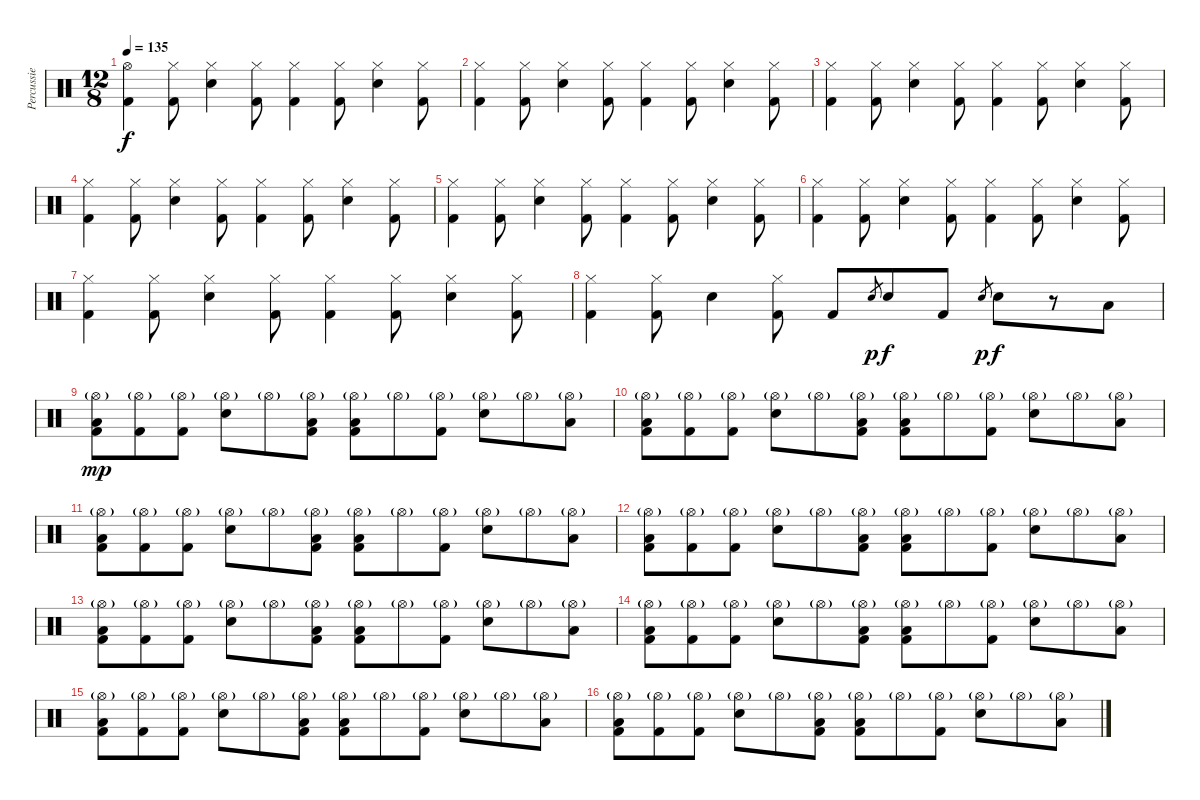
\track ("Percussie" "Percussie") {instrument percussion}
\staff {score}
\articulation defaults
\ts (12 8)
\tempo 135
\clef neutral
\ks c
("Hi-Hat (open)" "Kick (hit) 2").4{dy f} ("Hi-Hat (closed)" "Kick (hit) 2").8 ("Hi-Hat (closed)" "Electric Snare (hit)").4 ("Hi-Hat (closed)" "Kick (hit) 2").8 ("Hi-Hat (closed)" "Kick (hit) 2").4 ("Hi-Hat (closed)" "Kick (hit) 2").8 ("Hi-Hat (closed)" "Electric Snare (hit)").4 ("Hi-Hat (closed)" "Kick (hit) 2").8 |
("Hi-Hat (closed)" "Kick (hit) 2").4 ("Hi-Hat (closed)" "Kick (hit) 2").8 ("Hi-Hat (closed)" "Electric Snare (hit)").4 ("Hi-Hat (closed)" "Kick (hit) 2").8 ("Hi-Hat (closed)" "Kick (hit) 2").4 ("Hi-Hat (closed)" "Kick (hit) 2").8 ("Hi-Hat (closed)" "Electric Snare (hit)").4 ("Hi-Hat (closed)" "Kick (hit) 2").8 |
("Hi-Hat (closed)" "Kick (hit) 2").4 ("Hi-Hat (closed)" "Kick (hit) 2").8 ("Hi-Hat (closed)" "Electric Snare (hit)").4 ("Hi-Hat (closed)" "Kick (hit) 2").8 ("Hi-Hat (closed)" "Kick (hit) 2").4 ("Hi-Hat (closed)" "Kick (hit) 2").8 ("Hi-Hat (closed)" "Electric Snare (hit)").4 ("Hi-Hat (closed)" "Kick (hit) 2").8 |
("Hi-Hat (closed)" "Kick (hit) 2").4 ("Hi-Hat (closed)" "Kick (hit) 2").8 ("Hi-Hat (closed)" "Electric Snare (hit)").4 ("Hi-Hat (closed)" "Kick (hit) 2").8 ("Hi-Hat (closed)" "Kick (hit) 2").4 ("Hi-Hat (closed)" "Kick (hit) 2").8 ("Hi-Hat (closed)" "Electric Snare (hit)").4 ("Hi-Hat (closed)" "Kick (hit) 2").8 |
("Hi-Hat (closed)" "Kick (hit) 2").4 ("Hi-Hat (closed)" "Kick (hit) 2").8 ("Hi-Hat (closed)" "Electric Snare (hit)").4 ("Hi-Hat (closed)" "Kick (hit) 2").8 ("Hi-Hat (closed)" "Kick (hit) 2").4 ("Hi-Hat (closed)" "Kick (hit) 2").8 ("Hi-Hat (closed)" "Electric Snare (hit)").4 ("Hi-Hat (closed)" "Kick (hit) 2").8 |
("Hi-Hat (closed)" "Kick (hit) 2").4 ("Hi-Hat (closed)" "Kick (hit) 2").8 ("Hi-Hat (closed)" "Electric Snare (hit)").4 ("Hi-Hat (closed)" "Kick (hit) 2").8 ("Hi-Hat (closed)" "Kick (hit) 2").4 ("Hi-Hat (closed)" "Kick (hit) 2").8 ("Hi-Hat (closed)" "Electric Snare (hit)").4 ("Hi-Hat (closed)" "Kick (hit) 2").8 |
("Hi-Hat (closed)" "Kick (hit) 2").4 ("Hi-Hat (closed)" "Kick (hit) 2").8 ("Hi-Hat (closed)" "Electric Snare (hit)").4 ("Hi-Hat (closed)" "Kick (hit) 2").8 ("Hi-Hat (closed)" "Kick (hit) 2").4 ("Hi-Hat (closed)" "Kick (hit) 2").8 ("Hi-Hat (closed)" "Electric Snare (hit)").4 ("Hi-Hat (closed)" "Kick (hit) 2").8 |
("Hi-Hat (closed)" "Kick (hit) 2").4 ("Hi-Hat (closed)" "Kick (hit) 2").8 "Electric Snare (hit)".4 ("Hi-Hat (closed)" "Kick (hit) 2").8 "Kick (hit) 2".8 "Electric Snare (hit)".8{gr dy p} "Electric Snare (hit)".8{dy f} "Kick (hit) 2".8 "Electric Snare (hit)".8{gr dy p} "Electric Snare (hit)".8{dy f} r.8 "Low Tom (hit)".8 |
("Hi-Hat (open)"{g} "Low Tom (hit)" "Kick (hit) 2").8{dy mp} ("Hi-Hat (open)"{g} "Kick (hit) 2").8 ("Hi-Hat (open)"{g} "Kick (hit) 2").8 ("Hi-Hat (open)"{g} "Electric Snare (hit)").8 "Hi-Hat (open)"{g}.8 ("Hi-Hat (open)"{g} "Low Tom (hit)" "Kick (hit) 2").8 ("Hi-Hat (open)"{g} "Low Tom (hit)" "Kick (hit) 2").8 "Hi-Hat (open)"{g}.8 ("Hi-Hat (open)"{g} "Kick (hit) 2").8 ("Hi-Hat (open)"{g} "Electric Snare (hit)").8 "Hi-Hat (open)"{g}.8 ("Hi-Hat (open)"{g} "Low Tom (hit)").8 |
("Hi-Hat (open)"{g} "Low Tom (hit)" "Kick (hit) 2").8 ("Hi-Hat (open)"{g} "Kick (hit) 2").8 ("Hi-Hat (open)"{g} "Kick (hit) 2").8 ("Hi-Hat (open)"{g} "Electric Snare (hit)").8 "Hi-Hat (open)"{g}.8 ("Hi-Hat (open)"{g} "Low Tom (hit)" "Kick (hit) 2").8 ("Hi-Hat (open)"{g} "Low Tom (hit)" "Kick (hit) 2").8 "Hi-Hat (open)"{g}.8 ("Hi-Hat (open)"{g} "Kick (hit) 2").8 ("Hi-Hat (open)"{g} "Electric Snare (hit)").8 "Hi-Hat (open)"{g}.8 ("Hi-Hat (open)"{g} "Low Tom (hit)").8 |
("Hi-Hat (open)"{g} "Low Tom (hit)" "Kick (hit) 2").8 ("Hi-Hat (open)"{g} "Kick (hit) 2").8 ("Hi-Hat (open)"{g} "Kick (hit) 2").8 ("Hi-Hat (open)"{g} "Electric Snare (hit)").8 "Hi-Hat (open)"{g}.8 ("Hi-Hat (open)"{g} "Low Tom (hit)" "Kick (hit) 2").8 ("Hi-Hat (open)"{g} "Low Tom (hit)" "Kick (hit) 2").8 "Hi-Hat (open)"{g}.8 ("Hi-Hat (open)"{g} "Kick (hit) 2").8 ("Hi-Hat (open)"{g} "Electric Snare (hit)").8 "Hi-Hat (open)"{g}.8 ("Hi-Hat (open)"{g} "Low Tom (hit)").8 |
("Hi-Hat (open)"{g} "Low Tom (hit)" "Kick (hit) 2").8 ("Hi-Hat (open)"{g} "Kick (hit) 2").8 ("Hi-Hat (open)"{g} "Kick (hit) 2").8 ("Hi-Hat (open)"{g} "Electric Snare (hit)").8 "Hi-Hat (open)"{g}.8 ("Hi-Hat (open)"{g} "Low Tom (hit)" "Kick (hit) 2").8 ("Hi-Hat (open)"{g} "Low Tom (hit)" "Kick (hit) 2").8 "Hi-Hat (open)"{g}.8 ("Hi-Hat (open)"{g} "Kick (hit) 2").8 ("Hi-Hat (open)"{g} "Electric Snare (hit)").8 "Hi-Hat (open)"{g}.8 ("Hi-Hat (open)"{g} "Low Tom (hit)").8 |
("Hi-Hat (open)"{g} "Low Tom (hit)" "Kick (hit) 2").8 ("Hi-Hat (open)"{g} "Kick (hit) 2").8 ("Hi-Hat (open)"{g} "Kick (hit) 2").8 ("Hi-Hat (open)"{g} "Electric Snare (hit)").8 "Hi-Hat (open)"{g}.8 ("Hi-Hat (open)"{g} "Low Tom (hit)" "Kick (hit) 2").8 ("Hi-Hat (open)"{g} "Low Tom (hit)" "Kick (hit) 2").8 "Hi-Hat (open)"{g}.8 ("Hi-Hat (open)"{g} "Kick (hit) 2").8 ("Hi-Hat (open)"{g} "Electric Snare (hit)").8 "Hi-Hat (open)"{g}.8 ("Hi-Hat (open)"{g} "Low Tom (hit)").8 |
("Hi-Hat (open)"{g} "Low Tom (hit)" "Kick (hit) 2").8 ("Hi-Hat (open)"{g} "Kick (hit) 2").8 ("Hi-Hat (open)"{g} "Kick (hit) 2").8 ("Hi-Hat (open)"{g} "Electric Snare (hit)").8 "Hi-Hat (open)"{g}.8 ("Hi-Hat (open)"{g} "Low Tom (hit)" "Kick (hit) 2").8 ("Hi-Hat (open)"{g} "Low Tom (hit)" "Kick (hit) 2").8 "Hi-Hat (open)"{g}.8 ("Hi-Hat (open)"{g} "Kick (hit) 2").8 ("Hi-Hat (open)"{g} "Electric Snare (hit)").8 "Hi-Hat (open)"{g}.8 ("Hi-Hat (open)"{g} "Low Tom (hit)").8 |
("Hi-Hat (open)"{g} "Low Tom (hit)" "Kick (hit) 2").8 ("Hi-Hat (open)"{g} "Kick (hit) 2").8 ("Hi-Hat (open)"{g} "Kick (hit) 2").8 ("Hi-Hat (open)"{g} "Electric Snare (hit)").8 "Hi-Hat (open)"{g}.8 ("Hi-Hat (open)"{g} "Low Tom (hit)" "Kick (hit) 2").8 ("Hi-Hat (open)"{g} "Low Tom (hit)" "Kick (hit) 2").8 "Hi-Hat (open)"{g}.8 ("Hi-Hat (open)"{g} "Kick (hit) 2").8 ("Hi-Hat (open)"{g} "Electric Snare (hit)").8 "Hi-Hat (open)"{g}.8 ("Hi-Hat (open)"{g} "Low Tom (hit)").8 |
("Hi-Hat (open)"{g} "Low Tom (hit)" "Kick (hit) 2").8 ("Hi-Hat (open)"{g} "Kick (hit) 2").8 ("Hi-Hat (open)"{g} "Kick (hit) 2").8 ("Hi-Hat (open)"{g} "Electric Snare (hit)").8 "Hi-Hat (open)"{g}.8 ("Hi-Hat (open)"{g} "Low Tom (hit)" "Kick (hit) 2").8 ("Hi-Hat (open)"{g} "Low Tom (hit)" "Kick (hit) 2").8 "Hi-Hat (open)"{g}.8 ("Hi-Hat (open)"{g} "Kick (hit) 2").8 ("Hi-Hat (open)"{g} "Electric Snare (hit)").8 "Hi-Hat (open)"{g}.8 ("Hi-Hat (open)"{g} "Low Tom (hit)").8
